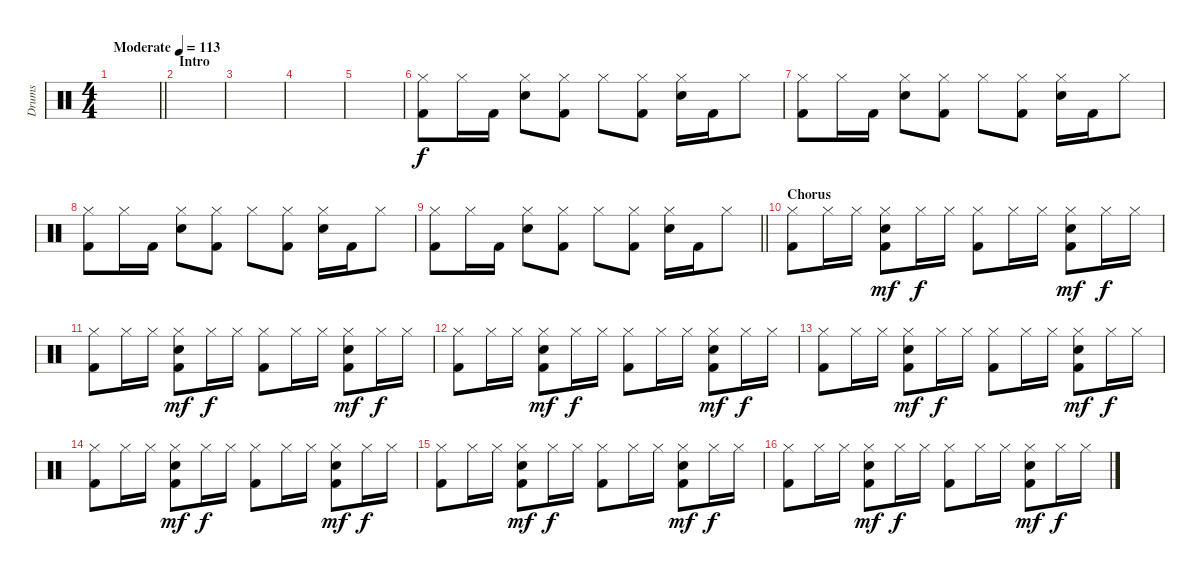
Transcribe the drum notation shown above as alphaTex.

\track ("Drums" "Drums") {instrument percussion}
\staff {score}
\articulation defaults
\ts (4 4)
\tempo (113 "Moderate")
\clef neutral
\barLineRight lightlight
\ks c
|
\section ("" "Intro")
|
|
|
|
("Hi-Hat (closed)" "Kick (hit) 2").8{volume 7} "Hi-Hat (closed)".16 "Kick (hit) 2".16 ("Hi-Hat (closed)" "Snare (hit) 2").8 ("Hi-Hat (closed)" "Kick (hit) 2").8 "Hi-Hat (closed)".8 ("Hi-Hat (closed)" "Kick (hit) 2").8 ("Hi-Hat (closed)" "Snare (hit) 2").16 "Kick (hit) 2".16 "Hi-Hat (closed)".8 |
("Hi-Hat (closed)" "Kick (hit) 2").8 "Hi-Hat (closed)".16 "Kick (hit) 2".16 ("Hi-Hat (closed)" "Snare (hit) 2").8 ("Hi-Hat (closed)" "Kick (hit) 2").8 "Hi-Hat (closed)".8 ("Hi-Hat (closed)" "Kick (hit) 2").8 ("Hi-Hat (closed)" "Snare (hit) 2").16 "Kick (hit) 2".16 "Hi-Hat (closed)".8 |
("Hi-Hat (closed)" "Kick (hit) 2").8 "Hi-Hat (closed)".16 "Kick (hit) 2".16 ("Hi-Hat (closed)" "Snare (hit) 2").8 ("Hi-Hat (closed)" "Kick (hit) 2").8 "Hi-Hat (closed)".8 ("Hi-Hat (closed)" "Kick (hit) 2").8 ("Hi-Hat (closed)" "Snare (hit) 2").16 "Kick (hit) 2".16 "Hi-Hat (closed)".8 |
\barLineRight lightlight
("Hi-Hat (closed)" "Kick (hit) 2").8 "Hi-Hat (closed)".16 "Kick (hit) 2".16 ("Hi-Hat (closed)" "Snare (hit) 2").8 ("Hi-Hat (closed)" "Kick (hit) 2").8 "Hi-Hat (closed)".8 ("Hi-Hat (closed)" "Kick (hit) 2").8 ("Hi-Hat (closed)" "Snare (hit) 2").16 "Kick (hit) 2".16 "Hi-Hat (closed)".8 |
\section ("" "Chorus")
("Hi-Hat (closed)" "Kick (hit) 2").8{volume 13} "Hi-Hat (closed)".16 "Hi-Hat (closed)".16 ("Hi-Hat (closed)" "Snare (hit) 2" "Kick (hit) 2").8{dy mf} "Hi-Hat (closed)".16{dy f} "Hi-Hat (closed)".16 ("Hi-Hat (closed)" "Kick (hit) 2").8 "Hi-Hat (closed)".16 "Hi-Hat (closed)".16 ("Hi-Hat (closed)" "Snare (hit) 2" "Kick (hit) 2").8{dy mf} "Hi-Hat (closed)".16{dy f} "Hi-Hat (closed)".16 |
("Hi-Hat (closed)" "Kick (hit) 2").8 "Hi-Hat (closed)".16 "Hi-Hat (closed)".16 ("Hi-Hat (closed)" "Snare (hit) 2" "Kick (hit) 2").8{dy mf} "Hi-Hat (closed)".16{dy f} "Hi-Hat (closed)".16 ("Hi-Hat (closed)" "Kick (hit) 2").8 "Hi-Hat (closed)".16 "Hi-Hat (closed)".16 ("Hi-Hat (closed)" "Snare (hit) 2" "Kick (hit) 2").8{dy mf} "Hi-Hat (closed)".16{dy f} "Hi-Hat (closed)".16 |
("Hi-Hat (closed)" "Kick (hit) 2").8 "Hi-Hat (closed)".16 "Hi-Hat (closed)".16 ("Hi-Hat (closed)" "Snare (hit) 2" "Kick (hit) 2").8{dy mf} "Hi-Hat (closed)".16{dy f} "Hi-Hat (closed)".16 ("Hi-Hat (closed)" "Kick (hit) 2").8 "Hi-Hat (closed)".16 "Hi-Hat (closed)".16 ("Hi-Hat (closed)" "Snare (hit) 2" "Kick (hit) 2").8{dy mf} "Hi-Hat (closed)".16{dy f} "Hi-Hat (closed)".16 |
("Hi-Hat (closed)" "Kick (hit) 2").8 "Hi-Hat (closed)".16 "Hi-Hat (closed)".16 ("Hi-Hat (closed)" "Snare (hit) 2" "Kick (hit) 2").8{dy mf} "Hi-Hat (closed)".16{dy f} "Hi-Hat (closed)".16 ("Hi-Hat (closed)" "Kick (hit) 2").8 "Hi-Hat (closed)".16 "Hi-Hat (closed)".16 ("Hi-Hat (closed)" "Snare (hit) 2" "Kick (hit) 2").8{dy mf} "Hi-Hat (closed)".16{dy f} "Hi-Hat (closed)".16 |
("Hi-Hat (closed)" "Kick (hit) 2").8 "Hi-Hat (closed)".16 "Hi-Hat (closed)".16 ("Hi-Hat (closed)" "Snare (hit) 2" "Kick (hit) 2").8{dy mf} "Hi-Hat (closed)".16{dy f} "Hi-Hat (closed)".16 ("Hi-Hat (closed)" "Kick (hit) 2").8 "Hi-Hat (closed)".16 "Hi-Hat (closed)".16 ("Hi-Hat (closed)" "Snare (hit) 2" "Kick (hit) 2").8{dy mf} "Hi-Hat (closed)".16{dy f} "Hi-Hat (closed)".16 |
("Hi-Hat (closed)" "Kick (hit) 2").8 "Hi-Hat (closed)".16 "Hi-Hat (closed)".16 ("Hi-Hat (closed)" "Snare (hit) 2" "Kick (hit) 2").8{dy mf} "Hi-Hat (closed)".16{dy f} "Hi-Hat (closed)".16 ("Hi-Hat (closed)" "Kick (hit) 2").8 "Hi-Hat (closed)".16 "Hi-Hat (closed)".16 ("Hi-Hat (closed)" "Snare (hit) 2" "Kick (hit) 2").8{dy mf} "Hi-Hat (closed)".16{dy f} "Hi-Hat (closed)".16 |
("Hi-Hat (closed)" "Kick (hit) 2").8 "Hi-Hat (closed)".16 "Hi-Hat (closed)".16 ("Hi-Hat (closed)" "Snare (hit) 2" "Kick (hit) 2").8{dy mf} "Hi-Hat (closed)".16{dy f} "Hi-Hat (closed)".16 ("Hi-Hat (closed)" "Kick (hit) 2").8 "Hi-Hat (closed)".16 "Hi-Hat (closed)".16 ("Hi-Hat (closed)" "Snare (hit) 2" "Kick (hit) 2").8{dy mf} "Hi-Hat (closed)".16{dy f} "Hi-Hat (closed)".16
